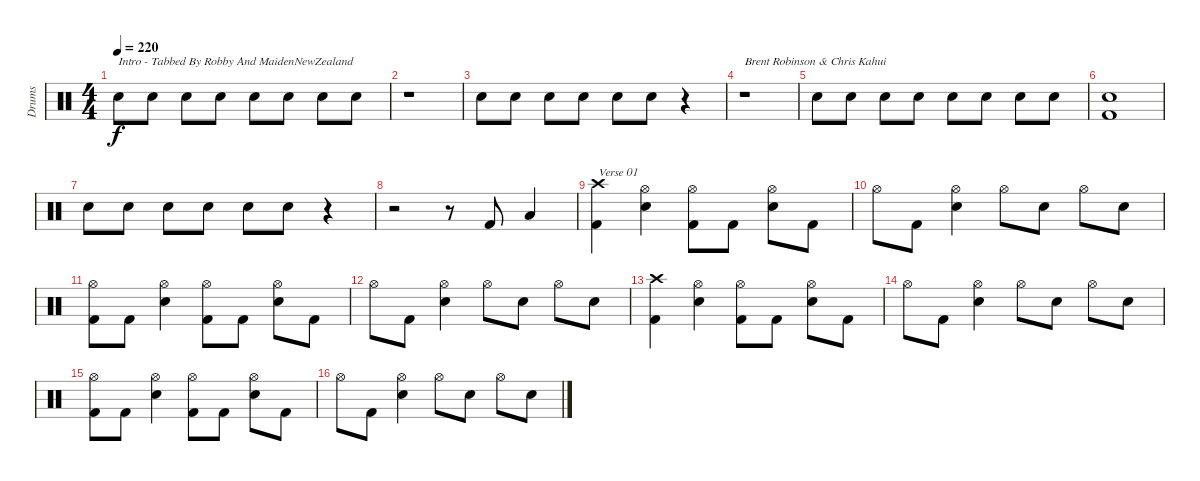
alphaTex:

\track ("Drums" "Drums") {instrument percussion}
\staff {score}
\articulation defaults
\ts (4 4)
\tempo 220
\clef neutral
\ks c "Snare (hit) 2".8{txt "Intro - Tabbed By Robby And MaidenNewZealand" dy f} "Snare (hit) 2".8 "Snare (hit) 2".8 "Snare (hit) 2".8 "Snare (hit) 2".8 "Snare (hit) 2".8 "Snare (hit) 2".8 "Snare (hit) 2".8
|
r.1 |
"Snare (hit) 2".8 "Snare (hit) 2".8 "Snare (hit) 2".8 "Snare (hit) 2".8 "Snare (hit) 2".8 "Snare (hit) 2".8 r.4 |
r.1{txt "Brent Robinson & Chris Kahui"} |
"Snare (hit) 2".8 "Snare (hit) 2".8 "Snare (hit) 2".8 "Snare (hit) 2".8 "Snare (hit) 2".8 "Snare (hit) 2".8 "Snare (hit) 2".8 "Snare (hit) 2".8 |
("Snare (hit) 2" "Kick (hit) 2").1 |
"Snare (hit) 2".8 "Snare (hit) 2".8 "Snare (hit) 2".8 "Snare (hit) 2".8 "Snare (hit) 2".8 "Snare (hit) 2".8 r.4 |
r.2 r.8 "Kick (hit) 2".8 "Low Tom (hit)".4 |
("Crash high (hit)" "Kick (hit) 2").4{txt "Verse 01"} ("Hi-Hat (open)" "Snare (hit) 2").4 ("Hi-Hat (open)" "Kick (hit) 2").8 "Kick (hit) 2".8 ("Hi-Hat (open)" "Snare (hit) 2").8 "Kick (hit) 2".8 |
"Hi-Hat (open)".8 "Kick (hit) 2".8 ("Hi-Hat (open)" "Snare (hit) 2").4 "Hi-Hat (open)".8 "Snare (hit) 2".8 "Hi-Hat (open)".8 "Snare (hit) 2".8 |
("Hi-Hat (open)" "Kick (hit) 2").8 "Kick (hit) 2".8 ("Hi-Hat (open)" "Snare (hit) 2").4 ("Hi-Hat (open)" "Kick (hit) 2").8 "Kick (hit) 2".8 ("Hi-Hat (open)" "Snare (hit) 2").8 "Kick (hit) 2".8 |
"Hi-Hat (open)".8 "Kick (hit) 2".8 ("Hi-Hat (open)" "Snare (hit) 2").4 "Hi-Hat (open)".8 "Snare (hit) 2".8 "Hi-Hat (open)".8 "Snare (hit) 2".8 |
("Crash high (hit)" "Kick (hit) 2").4 ("Hi-Hat (open)" "Snare (hit) 2").4 ("Hi-Hat (open)" "Kick (hit) 2").8 "Kick (hit) 2".8 ("Hi-Hat (open)" "Snare (hit) 2").8 "Kick (hit) 2".8 |
"Hi-Hat (open)".8 "Kick (hit) 2".8 ("Hi-Hat (open)" "Snare (hit) 2").4 "Hi-Hat (open)".8 "Snare (hit) 2".8 "Hi-Hat (open)".8 "Snare (hit) 2".8 |
("Hi-Hat (open)" "Kick (hit) 2").8 "Kick (hit) 2".8 ("Hi-Hat (open)" "Snare (hit) 2").4 ("Hi-Hat (open)" "Kick (hit) 2").8 "Kick (hit) 2".8 ("Hi-Hat (open)" "Snare (hit) 2").8 "Kick (hit) 2".8 |
"Hi-Hat (open)".8 "Kick (hit) 2".8 ("Hi-Hat (open)" "Snare (hit) 2").4 "Hi-Hat (open)".8 "Snare (hit) 2".8 "Hi-Hat (open)".8 "Snare (hit) 2".8
